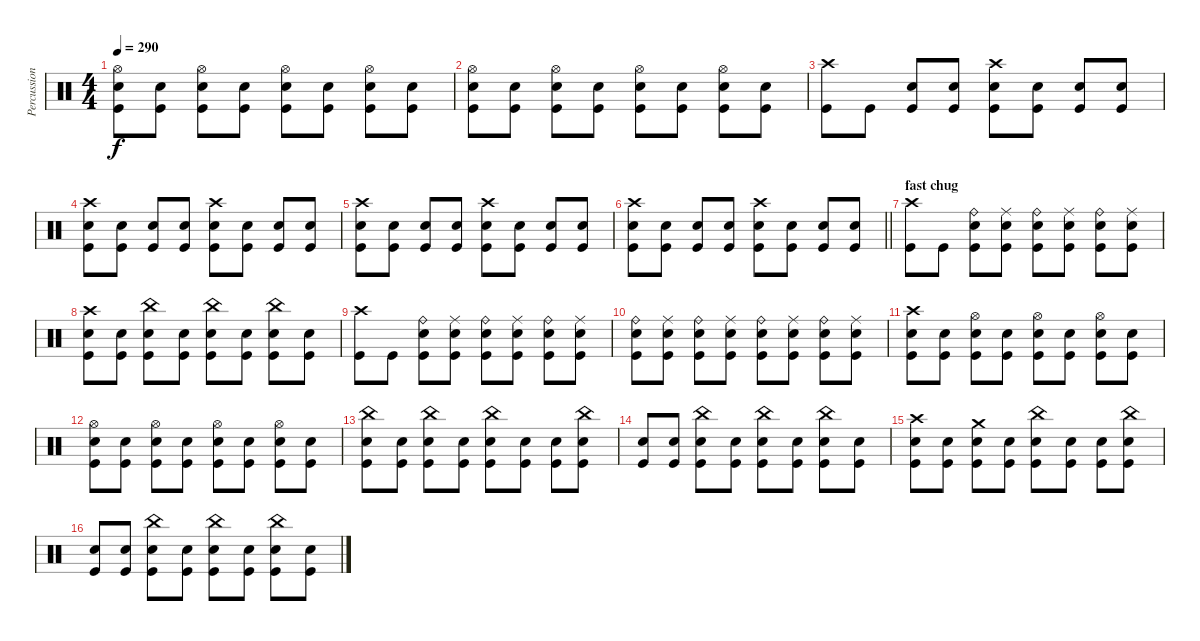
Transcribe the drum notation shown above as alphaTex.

\track ("Percussion" "Percussion") {instrument percussion}
\staff {score}
\articulation defaults
\ts (4 4)
\tempo 290
\clef neutral
\ks c
("Electric Snare (hit)" "Kick (hit)" "Hi-Hat (open)").8{dy f} ("Electric Snare (hit)" "Kick (hit)").8 ("Electric Snare (hit)" "Kick (hit)" "Hi-Hat (open)").8 ("Electric Snare (hit)" "Kick (hit)").8 ("Electric Snare (hit)" "Kick (hit)" "Hi-Hat (open)").8 ("Electric Snare (hit)" "Kick (hit)").8 ("Electric Snare (hit)" "Kick (hit)" "Hi-Hat (open)").8 ("Electric Snare (hit)" "Kick (hit)").8 |
("Electric Snare (hit)" "Kick (hit)" "Hi-Hat (open)").8 ("Electric Snare (hit)" "Kick (hit)").8 ("Electric Snare (hit)" "Kick (hit)" "Hi-Hat (open)").8 ("Electric Snare (hit)" "Kick (hit)").8 ("Electric Snare (hit)" "Kick (hit)" "Hi-Hat (open)").8 ("Electric Snare (hit)" "Kick (hit)").8 ("Electric Snare (hit)" "Kick (hit)" "Hi-Hat (open)").8 ("Electric Snare (hit)" "Kick (hit)").8 |
("Crash high (hit)" "Kick (hit)").8 "Kick (hit)".8 ("Electric Snare (hit)" "Kick (hit)").8 ("Electric Snare (hit)" "Kick (hit)").8 ("Electric Snare (hit)" "Kick (hit)" "Crash high (hit)").8 ("Electric Snare (hit)" "Kick (hit)").8 ("Electric Snare (hit)" "Kick (hit)").8 ("Electric Snare (hit)" "Kick (hit)").8 |
("Electric Snare (hit)" "Kick (hit)" "Crash high (hit)").8 ("Electric Snare (hit)" "Kick (hit)").8 ("Electric Snare (hit)" "Kick (hit)").8 ("Electric Snare (hit)" "Kick (hit)").8 ("Electric Snare (hit)" "Kick (hit)" "Crash high (hit)").8 ("Electric Snare (hit)" "Kick (hit)").8 ("Electric Snare (hit)" "Kick (hit)").8 ("Electric Snare (hit)" "Kick (hit)").8 |
("Electric Snare (hit)" "Kick (hit)" "Crash high (hit)").8 ("Electric Snare (hit)" "Kick (hit)").8 ("Electric Snare (hit)" "Kick (hit)").8 ("Electric Snare (hit)" "Kick (hit)").8 ("Electric Snare (hit)" "Kick (hit)" "Crash high (hit)").8 ("Electric Snare (hit)" "Kick (hit)").8 ("Electric Snare (hit)" "Kick (hit)").8 ("Electric Snare (hit)" "Kick (hit)").8 |
\barLineRight lightlight
("Electric Snare (hit)" "Kick (hit)" "Crash high (hit)").8 ("Electric Snare (hit)" "Kick (hit)").8 ("Electric Snare (hit)" "Kick (hit)").8 ("Electric Snare (hit)" "Kick (hit)").8 ("Electric Snare (hit)" "Kick (hit)" "Crash high (hit)").8 ("Electric Snare (hit)" "Kick (hit)").8 ("Electric Snare (hit)" "Kick (hit)").8 ("Electric Snare (hit)" "Kick (hit)").8 |
\section ("" "fast chug")
("Crash high (hit)" "Kick (hit)").8 "Kick (hit)".8 ("Electric Snare (hit)" "Ride (bell)" "Kick (hit)").8 ("Electric Snare (hit)" "Ride (middle)" "Kick (hit)").8 ("Electric Snare (hit)" "Ride (bell)" "Kick (hit)").8 ("Electric Snare (hit)" "Ride (middle)" "Kick (hit)").8 ("Electric Snare (hit)" "Ride (bell)" "Kick (hit)").8 ("Electric Snare (hit)" "Ride (middle)" "Kick (hit)").8 |
("Electric Snare (hit)" "Crash high (hit)" "Kick (hit)").8 ("Electric Snare (hit)" "Kick (hit)").8 ("Electric Snare (hit)" "China (hit)" "Kick (hit)").8 ("Electric Snare (hit)" "Kick (hit)").8 ("Electric Snare (hit)" "China (hit)" "Kick (hit)").8 ("Electric Snare (hit)" "Kick (hit)").8 ("Electric Snare (hit)" "China (hit)" "Kick (hit)").8 ("Electric Snare (hit)" "Kick (hit)").8 |
("Crash high (hit)" "Kick (hit)").8 "Kick (hit)".8 ("Electric Snare (hit)" "Ride (bell)" "Kick (hit)").8 ("Electric Snare (hit)" "Ride (middle)" "Kick (hit)").8 ("Electric Snare (hit)" "Ride (bell)" "Kick (hit)").8 ("Electric Snare (hit)" "Ride (middle)" "Kick (hit)").8 ("Electric Snare (hit)" "Ride (bell)" "Kick (hit)").8 ("Electric Snare (hit)" "Ride (middle)" "Kick (hit)").8 |
("Electric Snare (hit)" "Ride (bell)" "Kick (hit)").8 ("Electric Snare (hit)" "Ride (middle)" "Kick (hit)").8 ("Electric Snare (hit)" "Ride (bell)" "Kick (hit)").8 ("Electric Snare (hit)" "Ride (middle)" "Kick (hit)").8 ("Electric Snare (hit)" "Ride (bell)" "Kick (hit)").8 ("Electric Snare (hit)" "Ride (middle)" "Kick (hit)").8 ("Electric Snare (hit)" "Ride (bell)" "Kick (hit)").8 ("Electric Snare (hit)" "Ride (middle)" "Kick (hit)").8 |
("Crash high (hit)" "Kick (hit)" "Electric Snare (hit)").8 ("Kick (hit)" "Electric Snare (hit)").8 ("Electric Snare (hit)" "Hi-Hat (open)" "Kick (hit)").8 ("Electric Snare (hit)" "Kick (hit)").8 ("Electric Snare (hit)" "Hi-Hat (open)" "Kick (hit)").8 ("Electric Snare (hit)" "Kick (hit)").8 ("Electric Snare (hit)" "Hi-Hat (open)" "Kick (hit)").8 ("Electric Snare (hit)" "Kick (hit)").8 |
("Electric Snare (hit)" "Hi-Hat (open)" "Kick (hit)").8 ("Electric Snare (hit)" "Kick (hit)").8 ("Electric Snare (hit)" "Hi-Hat (open)" "Kick (hit)").8 ("Electric Snare (hit)" "Kick (hit)").8 ("Electric Snare (hit)" "Hi-Hat (open)" "Kick (hit)").8 ("Electric Snare (hit)" "Kick (hit)").8 ("Electric Snare (hit)" "Hi-Hat (open)" "Kick (hit)").8 ("Electric Snare (hit)" "Kick (hit)").8 |
("China (hit)" "Electric Snare (hit)" "Kick (hit)").8 ("Electric Snare (hit)" "Kick (hit)").8 ("Electric Snare (hit)" "China (hit)" "Kick (hit)").8 ("Electric Snare (hit)" "Kick (hit)").8 ("Electric Snare (hit)" "China (hit)" "Kick (hit)").8 ("Electric Snare (hit)" "Kick (hit)").8 ("Electric Snare (hit)" "Kick (hit)").8 ("Electric Snare (hit)" "China (hit)" "Kick (hit)").8 |
("Electric Snare (hit)" "Kick (hit)").8 ("Electric Snare (hit)" "Kick (hit)").8 ("Electric Snare (hit)" "China (hit)" "Kick (hit)").8 ("Electric Snare (hit)" "Kick (hit)").8 ("Electric Snare (hit)" "China (hit)" "Kick (hit)").8 ("Electric Snare (hit)" "Kick (hit)").8 ("Electric Snare (hit)" "China (hit)" "Kick (hit)").8 ("Electric Snare (hit)" "Kick (hit)").8 |
("Crash high (hit)" "Electric Snare (hit)" "Kick (hit)").8 ("Electric Snare (hit)" "Kick (hit)").8 ("Electric Snare (hit)" "Crash medium (hit)" "Kick (hit)").8 ("Electric Snare (hit)" "Kick (hit)").8 ("Electric Snare (hit)" "China (hit)" "Kick (hit)").8 ("Electric Snare (hit)" "Kick (hit)").8 ("Electric Snare (hit)" "Kick (hit)").8 ("Electric Snare (hit)" "China (hit)" "Kick (hit)").8 |
("Electric Snare (hit)" "Kick (hit)").8 ("Electric Snare (hit)" "Kick (hit)").8 ("Electric Snare (hit)" "China (hit)" "Kick (hit)").8 ("Electric Snare (hit)" "Kick (hit)").8 ("Electric Snare (hit)" "China (hit)" "Kick (hit)").8 ("Electric Snare (hit)" "Kick (hit)").8 ("Electric Snare (hit)" "China (hit)" "Kick (hit)").8 ("Electric Snare (hit)" "Kick (hit)").8
